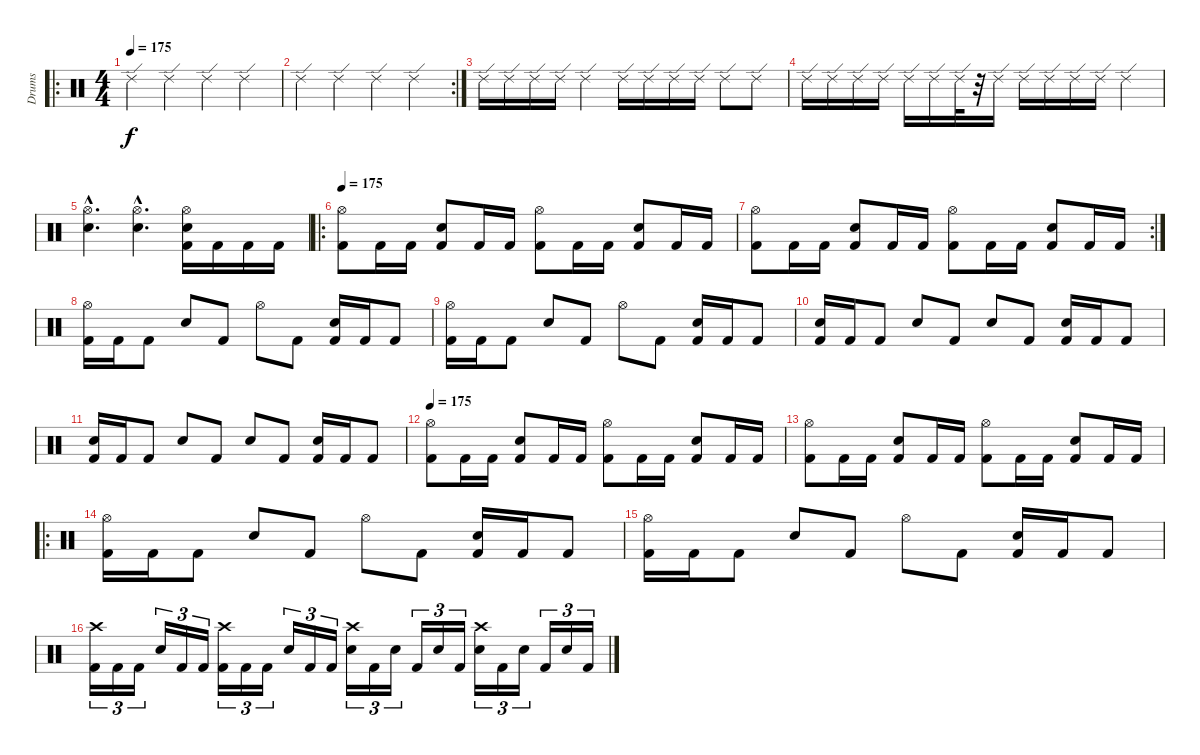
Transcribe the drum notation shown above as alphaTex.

\track ("Drums" "Drums") {instrument percussion}
\staff {score}
\articulation defaults
\ro
\ts (4 4)
\tempo 175
\clef neutral
\ks c "Ride (edge) 2".4{dy f} "Ride (edge) 2".4 "Ride (edge) 2".4 "Ride (edge) 2".4
|
\rc 2 "Ride (edge) 2".4 "Ride (edge) 2".4 "Ride (edge) 2".4 "Ride (edge) 2".4
|
"Ride (edge) 2".16 "Ride (edge) 2".16 "Ride (edge) 2".16 "Ride (edge) 2".16 "Ride (edge) 2".4 "Ride (edge) 2".16 "Ride (edge) 2".16 "Ride (edge) 2".16 "Ride (edge) 2".16 "Ride (edge) 2".8 "Ride (edge) 2".8 |
"Ride (edge) 2".16 "Ride (edge) 2".16 "Ride (edge) 2".16 "Ride (edge) 2".16 "Ride (edge) 2".16 "Ride (edge) 2".16 "Ride (edge) 2".32 r.32 "Ride (edge) 2".16 "Ride (edge) 2".16 "Ride (edge) 2".16 "Ride (edge) 2".16 "Ride (edge) 2".16 "Ride (edge) 2".4 |
("Hi-Hat (open)"{hac} "Snare (hit) 2"{hac}).4{d} ("Hi-Hat (open)"{hac} "Snare (hit) 2"{hac}).4{d} ("Hi-Hat (open)" "Snare (hit) 2" "Kick (hit) 2").16 "Kick (hit) 2".16 "Kick (hit) 2".16 "Kick (hit) 2".16 |
\ro
\tempo 175
("Hi-Hat (open)" "Kick (hit) 2").8 "Kick (hit) 2".16 "Kick (hit) 2".16 ("Electric Snare (hit)" "Kick (hit) 2").8 "Kick (hit) 2".16 "Kick (hit) 2".16 ("Hi-Hat (open)" "Kick (hit) 2").8 "Kick (hit) 2".16 "Kick (hit) 2".16 ("Electric Snare (hit)" "Kick (hit) 2").8 "Kick (hit) 2".16 "Kick (hit) 2".16 |
\rc 2
("Hi-Hat (open)" "Kick (hit) 2").8 "Kick (hit) 2".16 "Kick (hit) 2".16 ("Electric Snare (hit)" "Kick (hit) 2").8 "Kick (hit) 2".16 "Kick (hit) 2".16 ("Hi-Hat (open)" "Kick (hit) 2").8 "Kick (hit) 2".16 "Kick (hit) 2".16 ("Electric Snare (hit)" "Kick (hit) 2").8 "Kick (hit) 2".16 "Kick (hit) 2".16 |
("Hi-Hat (open)" "Kick (hit) 2").16 "Kick (hit) 2".16 "Kick (hit) 2".8 "Electric Snare (hit)".8 "Kick (hit) 2".8 "Hi-Hat (open)".8 "Kick (hit) 2".8 ("Electric Snare (hit)" "Kick (hit) 2").16 "Kick (hit) 2".16 "Kick (hit) 2".8 |
("Hi-Hat (open)" "Kick (hit) 2").16 "Kick (hit) 2".16 "Kick (hit) 2".8 "Electric Snare (hit)".8 "Kick (hit) 2".8 "Hi-Hat (open)".8 "Kick (hit) 2".8 ("Electric Snare (hit)" "Kick (hit) 2").16 "Kick (hit) 2".16 "Kick (hit) 2".8 |
("Electric Snare (hit)" "Kick (hit) 2").16 "Kick (hit) 2".16 "Kick (hit) 2".8 "Electric Snare (hit)".8 "Kick (hit) 2".8 "Electric Snare (hit)".8 "Kick (hit) 2".8 ("Electric Snare (hit)" "Kick (hit) 2").16 "Kick (hit) 2".16 "Kick (hit) 2".8 |
("Electric Snare (hit)" "Kick (hit) 2").16 "Kick (hit) 2".16 "Kick (hit) 2".8 "Electric Snare (hit)".8 "Kick (hit) 2".8 "Electric Snare (hit)".8 "Kick (hit) 2".8 ("Electric Snare (hit)" "Kick (hit) 2").16 "Kick (hit) 2".16 "Kick (hit) 2".8 |
\tempo 175
("Hi-Hat (open)" "Kick (hit) 2").8 "Kick (hit) 2".16 "Kick (hit) 2".16 ("Electric Snare (hit)" "Kick (hit) 2").8 "Kick (hit) 2".16 "Kick (hit) 2".16 ("Hi-Hat (open)" "Kick (hit) 2").8 "Kick (hit) 2".16 "Kick (hit) 2".16 ("Electric Snare (hit)" "Kick (hit) 2").8 "Kick (hit) 2".16 "Kick (hit) 2".16 |
("Hi-Hat (open)" "Kick (hit) 2").8 "Kick (hit) 2".16 "Kick (hit) 2".16 ("Electric Snare (hit)" "Kick (hit) 2").8 "Kick (hit) 2".16 "Kick (hit) 2".16 ("Hi-Hat (open)" "Kick (hit) 2").8 "Kick (hit) 2".16 "Kick (hit) 2".16 ("Electric Snare (hit)" "Kick (hit) 2").8 "Kick (hit) 2".16 "Kick (hit) 2".16 |
\ro
("Hi-Hat (open)" "Kick (hit) 2").16 "Kick (hit) 2".16 "Kick (hit) 2".8 "Electric Snare (hit)".8 "Kick (hit) 2".8 "Hi-Hat (open)".8 "Kick (hit) 2".8 ("Electric Snare (hit)" "Kick (hit) 2").16 "Kick (hit) 2".16 "Kick (hit) 2".8 |
("Hi-Hat (open)" "Kick (hit) 2").16 "Kick (hit) 2".16 "Kick (hit) 2".8 "Electric Snare (hit)".8 "Kick (hit) 2".8 "Hi-Hat (open)".8 "Kick (hit) 2".8 ("Electric Snare (hit)" "Kick (hit) 2").16 "Kick (hit) 2".16 "Kick (hit) 2".8 |
("Crash high (hit)" "Kick (hit) 2").16{tu (3 2)} "Kick (hit) 2".16{tu (3 2)} "Kick (hit) 2".16{tu (3 2)} "Electric Snare (hit)".16{tu (3 2)} "Kick (hit) 2".16{tu (3 2)} "Kick (hit) 2".16{tu (3 2)} ("Crash high (hit)" "Kick (hit) 2").16{tu (3 2)} "Kick (hit) 2".16{tu (3 2)} "Kick (hit) 2".16{tu (3 2)} "Electric Snare (hit)".16{tu (3 2)} "Kick (hit) 2".16{tu (3 2)} "Kick (hit) 2".16{tu (3 2)} ("Crash high (hit)" "Electric Snare (hit)").16{tu (3 2)} "Kick (hit) 2".16{tu (3 2)} "Electric Snare (hit)".16{tu (3 2)} "Kick (hit) 2".16{tu (3 2)} "Electric Snare (hit)".16{tu (3 2)} "Kick (hit) 2".16{tu (3 2)} ("Crash high (hit)" "Electric Snare (hit)").16{tu (3 2)} "Kick (hit) 2".16{tu (3 2)} "Electric Snare (hit)".16{tu (3 2)} "Kick (hit) 2".16{tu (3 2)} "Electric Snare (hit)".16{tu (3 2)} "Kick (hit) 2".16{tu (3 2)}
